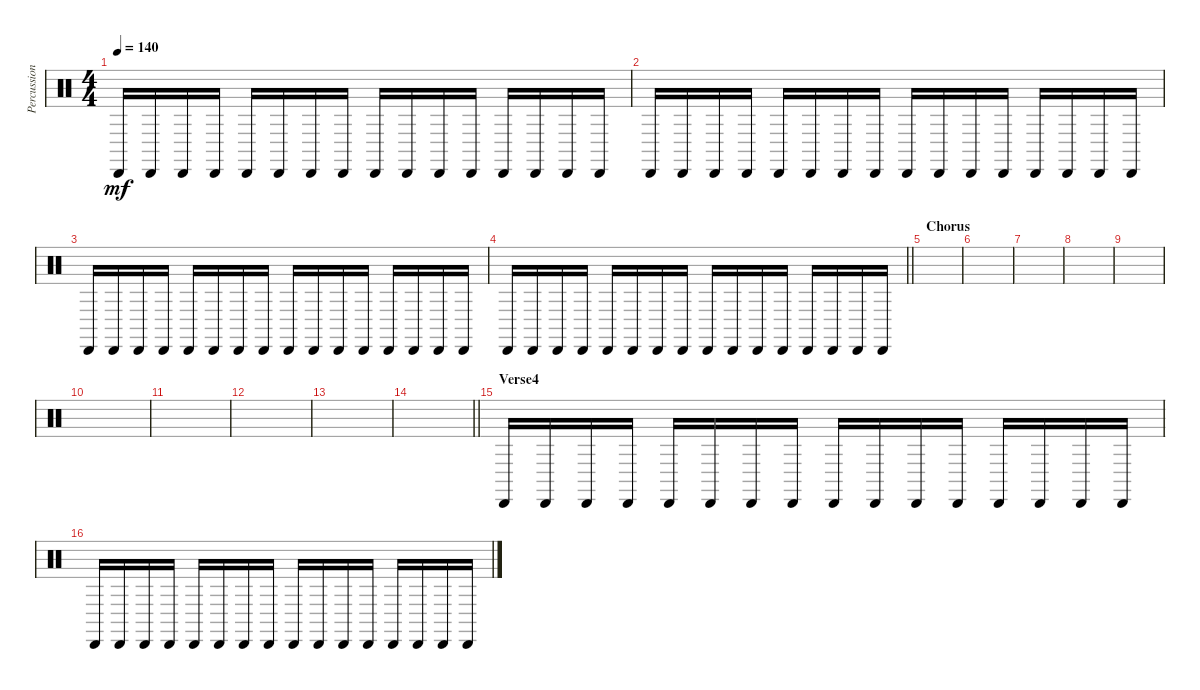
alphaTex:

\track ("Percussioni" "Percussion") {instrument percussion}
\staff {score}
\articulation defaults
\ts (4 4)
\tempo 140
\clef neutral
\ks c "Cabasa (hit)".16{dy mf} "Cabasa (hit)".16 "Cabasa (hit)".16 "Cabasa (hit)".16 "Cabasa (hit)".16 "Cabasa (hit)".16 "Cabasa (hit)".16 "Cabasa (hit)".16 "Cabasa (hit)".16 "Cabasa (hit)".16 "Cabasa (hit)".16 "Cabasa (hit)".16 "Cabasa (hit)".16 "Cabasa (hit)".16 "Cabasa (hit)".16 "Cabasa (hit)".16
|
"Cabasa (hit)".16 "Cabasa (hit)".16 "Cabasa (hit)".16 "Cabasa (hit)".16 "Cabasa (hit)".16 "Cabasa (hit)".16 "Cabasa (hit)".16 "Cabasa (hit)".16 "Cabasa (hit)".16 "Cabasa (hit)".16 "Cabasa (hit)".16 "Cabasa (hit)".16 "Cabasa (hit)".16 "Cabasa (hit)".16 "Cabasa (hit)".16 "Cabasa (hit)".16 |
"Cabasa (hit)".16 "Cabasa (hit)".16 "Cabasa (hit)".16 "Cabasa (hit)".16 "Cabasa (hit)".16 "Cabasa (hit)".16 "Cabasa (hit)".16 "Cabasa (hit)".16 "Cabasa (hit)".16 "Cabasa (hit)".16 "Cabasa (hit)".16 "Cabasa (hit)".16 "Cabasa (hit)".16 "Cabasa (hit)".16 "Cabasa (hit)".16 "Cabasa (hit)".16 |
\barLineRight lightlight "Cabasa (hit)".16 "Cabasa (hit)".16 "Cabasa (hit)".16 "Cabasa (hit)".16 "Cabasa (hit)".16 "Cabasa (hit)".16 "Cabasa (hit)".16 "Cabasa (hit)".16 "Cabasa (hit)".16 "Cabasa (hit)".16 "Cabasa (hit)".16 "Cabasa (hit)".16 "Cabasa (hit)".16 "Cabasa (hit)".16 "Cabasa (hit)".16 "Cabasa (hit)".16
|
\section ("" "Chorus")
|
|
|
|
|
|
|
|
|
\barLineRight lightlight
|
\section ("" "Verse4")
"Cabasa (hit)".16 "Cabasa (hit)".16 "Cabasa (hit)".16 "Cabasa (hit)".16 "Cabasa (hit)".16 "Cabasa (hit)".16 "Cabasa (hit)".16 "Cabasa (hit)".16 "Cabasa (hit)".16 "Cabasa (hit)".16 "Cabasa (hit)".16 "Cabasa (hit)".16 "Cabasa (hit)".16 "Cabasa (hit)".16 "Cabasa (hit)".16 "Cabasa (hit)".16 |
"Cabasa (hit)".16 "Cabasa (hit)".16 "Cabasa (hit)".16 "Cabasa (hit)".16 "Cabasa (hit)".16 "Cabasa (hit)".16 "Cabasa (hit)".16 "Cabasa (hit)".16 "Cabasa (hit)".16 "Cabasa (hit)".16 "Cabasa (hit)".16 "Cabasa (hit)".16 "Cabasa (hit)".16 "Cabasa (hit)".16 "Cabasa (hit)".16 "Cabasa (hit)".16
